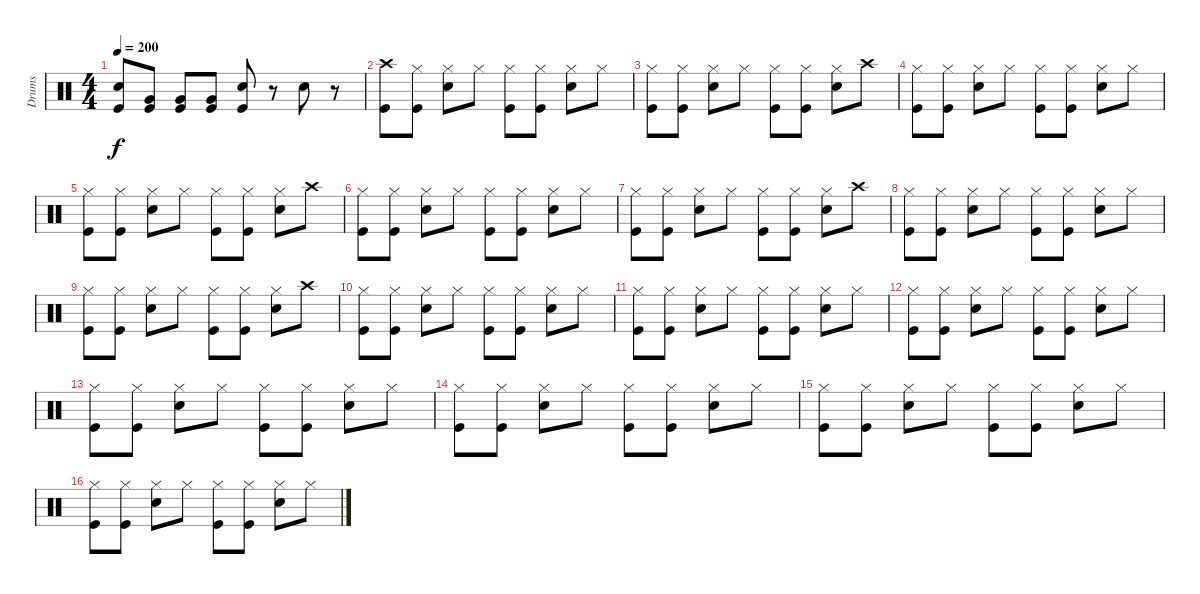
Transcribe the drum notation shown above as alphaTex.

\track ("Drums" "Drums") {instrument percussion}
\staff {score}
\articulation defaults
\ts (4 4)
\tempo 200
\clef neutral
\ks c
("Snare (hit) 2" "Kick (hit)").8{dy f} ("Very Low Tom (hit)" "Kick (hit)").8 ("Very Low Tom (hit)" "Kick (hit)").8 ("Very Low Tom (hit)" "Kick (hit)").8 ("Snare (hit) 2" "Kick (hit)").8 r.8 "Snare (hit) 2".8 r.8 |
("Crash high (hit)" "Kick (hit)").8 ("Hi-Hat (closed)" "Kick (hit)").8 ("Hi-Hat (closed)" "Snare (hit) 2").8 "Hi-Hat (closed)".8 ("Hi-Hat (closed)" "Kick (hit)").8 ("Hi-Hat (closed)" "Kick (hit)").8 ("Hi-Hat (closed)" "Snare (hit) 2").8 "Hi-Hat (closed)".8 |
("Hi-Hat (closed)" "Kick (hit)").8 ("Hi-Hat (closed)" "Kick (hit)").8 ("Hi-Hat (closed)" "Snare (hit) 2").8 "Hi-Hat (closed)".8 ("Hi-Hat (closed)" "Kick (hit)").8 ("Hi-Hat (closed)" "Kick (hit)").8 ("Hi-Hat (closed)" "Snare (hit) 2").8 "Crash high (hit)".8 |
("Hi-Hat (closed)" "Kick (hit)").8 ("Hi-Hat (closed)" "Kick (hit)").8 ("Hi-Hat (closed)" "Snare (hit) 2").8 "Hi-Hat (closed)".8 ("Hi-Hat (closed)" "Kick (hit)").8 ("Hi-Hat (closed)" "Kick (hit)").8 ("Hi-Hat (closed)" "Snare (hit) 2").8 "Hi-Hat (closed)".8 |
("Hi-Hat (closed)" "Kick (hit)").8 ("Hi-Hat (closed)" "Kick (hit)").8 ("Hi-Hat (closed)" "Snare (hit) 2").8 "Hi-Hat (closed)".8 ("Hi-Hat (closed)" "Kick (hit)").8 ("Hi-Hat (closed)" "Kick (hit)").8 ("Hi-Hat (closed)" "Snare (hit) 2").8 "Crash high (hit)".8 |
("Hi-Hat (closed)" "Kick (hit)").8 ("Hi-Hat (closed)" "Kick (hit)").8 ("Hi-Hat (closed)" "Snare (hit) 2").8 "Hi-Hat (closed)".8 ("Hi-Hat (closed)" "Kick (hit)").8 ("Hi-Hat (closed)" "Kick (hit)").8 ("Hi-Hat (closed)" "Snare (hit) 2").8 "Hi-Hat (closed)".8 |
("Hi-Hat (closed)" "Kick (hit)").8 ("Hi-Hat (closed)" "Kick (hit)").8 ("Hi-Hat (closed)" "Snare (hit) 2").8 "Hi-Hat (closed)".8 ("Hi-Hat (closed)" "Kick (hit)").8 ("Hi-Hat (closed)" "Kick (hit)").8 ("Hi-Hat (closed)" "Snare (hit) 2").8 "Crash high (hit)".8 |
("Hi-Hat (closed)" "Kick (hit)").8 ("Hi-Hat (closed)" "Kick (hit)").8 ("Hi-Hat (closed)" "Snare (hit) 2").8 "Hi-Hat (closed)".8 ("Hi-Hat (closed)" "Kick (hit)").8 ("Hi-Hat (closed)" "Kick (hit)").8 ("Hi-Hat (closed)" "Snare (hit) 2").8 "Hi-Hat (closed)".8 |
("Hi-Hat (closed)" "Kick (hit)").8 ("Hi-Hat (closed)" "Kick (hit)").8 ("Hi-Hat (closed)" "Snare (hit) 2").8 "Hi-Hat (closed)".8 ("Hi-Hat (closed)" "Kick (hit)").8 ("Hi-Hat (closed)" "Kick (hit)").8 ("Hi-Hat (closed)" "Snare (hit) 2").8 "Crash high (hit)".8 |
("Hi-Hat (closed)" "Kick (hit)").8 ("Hi-Hat (closed)" "Kick (hit)").8 ("Hi-Hat (closed)" "Snare (hit) 2").8 "Hi-Hat (closed)".8 ("Hi-Hat (closed)" "Kick (hit)").8 ("Hi-Hat (closed)" "Kick (hit)").8 ("Hi-Hat (closed)" "Snare (hit) 2").8 "Hi-Hat (closed)".8 |
("Hi-Hat (closed)" "Kick (hit)").8 ("Hi-Hat (closed)" "Kick (hit)").8 ("Hi-Hat (closed)" "Snare (hit) 2").8 "Hi-Hat (closed)".8 ("Hi-Hat (closed)" "Kick (hit)").8 ("Hi-Hat (closed)" "Kick (hit)").8 ("Hi-Hat (closed)" "Snare (hit) 2").8 "Hi-Hat (closed)".8 |
("Hi-Hat (closed)" "Kick (hit)").8 ("Hi-Hat (closed)" "Kick (hit)").8 ("Hi-Hat (closed)" "Snare (hit) 2").8 "Hi-Hat (closed)".8 ("Hi-Hat (closed)" "Kick (hit)").8 ("Hi-Hat (closed)" "Kick (hit)").8 ("Hi-Hat (closed)" "Snare (hit) 2").8 "Hi-Hat (closed)".8 |
("Hi-Hat (closed)" "Kick (hit)").8 ("Hi-Hat (closed)" "Kick (hit)").8 ("Hi-Hat (closed)" "Snare (hit) 2").8 "Hi-Hat (closed)".8 ("Hi-Hat (closed)" "Kick (hit)").8 ("Hi-Hat (closed)" "Kick (hit)").8 ("Hi-Hat (closed)" "Snare (hit) 2").8 "Hi-Hat (closed)".8 |
("Hi-Hat (closed)" "Kick (hit)").8 ("Hi-Hat (closed)" "Kick (hit)").8 ("Hi-Hat (closed)" "Snare (hit) 2").8 "Hi-Hat (closed)".8 ("Hi-Hat (closed)" "Kick (hit)").8 ("Hi-Hat (closed)" "Kick (hit)").8 ("Hi-Hat (closed)" "Snare (hit) 2").8 "Hi-Hat (closed)".8 |
("Hi-Hat (closed)" "Kick (hit)").8 ("Hi-Hat (closed)" "Kick (hit)").8 ("Hi-Hat (closed)" "Snare (hit) 2").8 "Hi-Hat (closed)".8 ("Hi-Hat (closed)" "Kick (hit)").8 ("Hi-Hat (closed)" "Kick (hit)").8 ("Hi-Hat (closed)" "Snare (hit) 2").8 "Hi-Hat (closed)".8 |
("Hi-Hat (closed)" "Kick (hit)").8 ("Hi-Hat (closed)" "Kick (hit)").8 ("Hi-Hat (closed)" "Snare (hit) 2").8 "Hi-Hat (closed)".8 ("Hi-Hat (closed)" "Kick (hit)").8 ("Hi-Hat (closed)" "Kick (hit)").8 ("Hi-Hat (closed)" "Snare (hit) 2").8 "Hi-Hat (closed)".8
